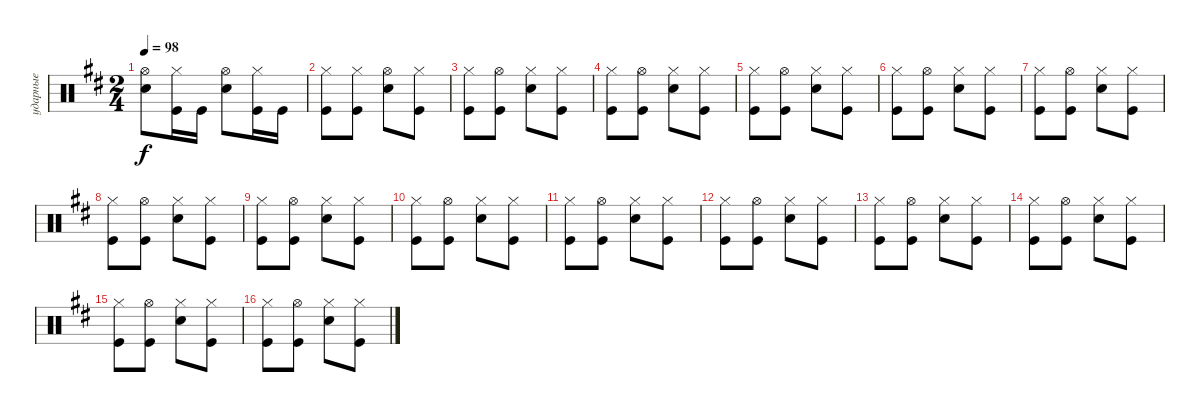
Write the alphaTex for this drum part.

\track ("ударные" "ударные") {instrument percussion}
\staff {score}
\articulation defaults
\ts (2 4)
\tempo 98
\clef neutral
\ks bminor
("Snare (hit) 2" "Hi-Hat (open)").8{dy f} ("Kick (hit)" "Hi-Hat (closed)").16 "Kick (hit)".16 ("Snare (hit) 2" "Hi-Hat (open)").8 ("Kick (hit)" "Hi-Hat (closed)").16 "Kick (hit)".16 |
("Kick (hit)" "Hi-Hat (closed)").8 ("Kick (hit)" "Hi-Hat (closed)").8 ("Snare (hit) 2" "Hi-Hat (open)").8 ("Hi-Hat (closed)" "Kick (hit)").8 |
("Kick (hit)" "Hi-Hat (closed)").8 ("Kick (hit)" "Hi-Hat (open)").8 ("Snare (hit) 2" "Hi-Hat (closed)").8 ("Hi-Hat (closed)" "Kick (hit)").8 |
("Kick (hit)" "Hi-Hat (closed)").8 ("Kick (hit)" "Hi-Hat (open)").8 ("Snare (hit) 2" "Hi-Hat (closed)").8 ("Hi-Hat (closed)" "Kick (hit)").8 |
("Kick (hit)" "Hi-Hat (closed)").8 ("Kick (hit)" "Hi-Hat (open)").8 ("Snare (hit) 2" "Hi-Hat (closed)").8 ("Hi-Hat (closed)" "Kick (hit)").8 |
("Kick (hit)" "Hi-Hat (closed)").8 ("Kick (hit)" "Hi-Hat (open)").8 ("Snare (hit) 2" "Hi-Hat (closed)").8 ("Hi-Hat (closed)" "Kick (hit)").8 |
("Kick (hit)" "Hi-Hat (closed)").8 ("Kick (hit)" "Hi-Hat (open)").8 ("Snare (hit) 2" "Hi-Hat (closed)").8 ("Hi-Hat (closed)" "Kick (hit)").8 |
("Kick (hit)" "Hi-Hat (closed)").8 ("Kick (hit)" "Hi-Hat (open)").8 ("Snare (hit) 2" "Hi-Hat (closed)").8 ("Hi-Hat (closed)" "Kick (hit)").8 |
("Kick (hit)" "Hi-Hat (closed)").8 ("Kick (hit)" "Hi-Hat (open)").8 ("Snare (hit) 2" "Hi-Hat (closed)").8 ("Hi-Hat (closed)" "Kick (hit)").8 |
("Kick (hit)" "Hi-Hat (closed)").8 ("Kick (hit)" "Hi-Hat (open)").8 ("Snare (hit) 2" "Hi-Hat (closed)").8 ("Hi-Hat (closed)" "Kick (hit)").8 |
("Kick (hit)" "Hi-Hat (closed)").8 ("Kick (hit)" "Hi-Hat (open)").8 ("Snare (hit) 2" "Hi-Hat (closed)").8 ("Hi-Hat (closed)" "Kick (hit)").8 |
("Kick (hit)" "Hi-Hat (closed)").8 ("Kick (hit)" "Hi-Hat (open)").8 ("Snare (hit) 2" "Hi-Hat (closed)").8 ("Hi-Hat (closed)" "Kick (hit)").8 |
("Kick (hit)" "Hi-Hat (closed)").8 ("Kick (hit)" "Hi-Hat (open)").8 ("Snare (hit) 2" "Hi-Hat (closed)").8 ("Hi-Hat (closed)" "Kick (hit)").8 |
("Kick (hit)" "Hi-Hat (closed)").8 ("Kick (hit)" "Hi-Hat (open)").8 ("Snare (hit) 2" "Hi-Hat (closed)").8 ("Hi-Hat (closed)" "Kick (hit)").8 |
("Kick (hit)" "Hi-Hat (closed)").8 ("Kick (hit)" "Hi-Hat (open)").8 ("Snare (hit) 2" "Hi-Hat (closed)").8 ("Hi-Hat (closed)" "Kick (hit)").8 |
("Kick (hit)" "Hi-Hat (closed)").8 ("Kick (hit)" "Hi-Hat (open)").8 ("Snare (hit) 2" "Hi-Hat (closed)").8 ("Hi-Hat (closed)" "Kick (hit)").8
